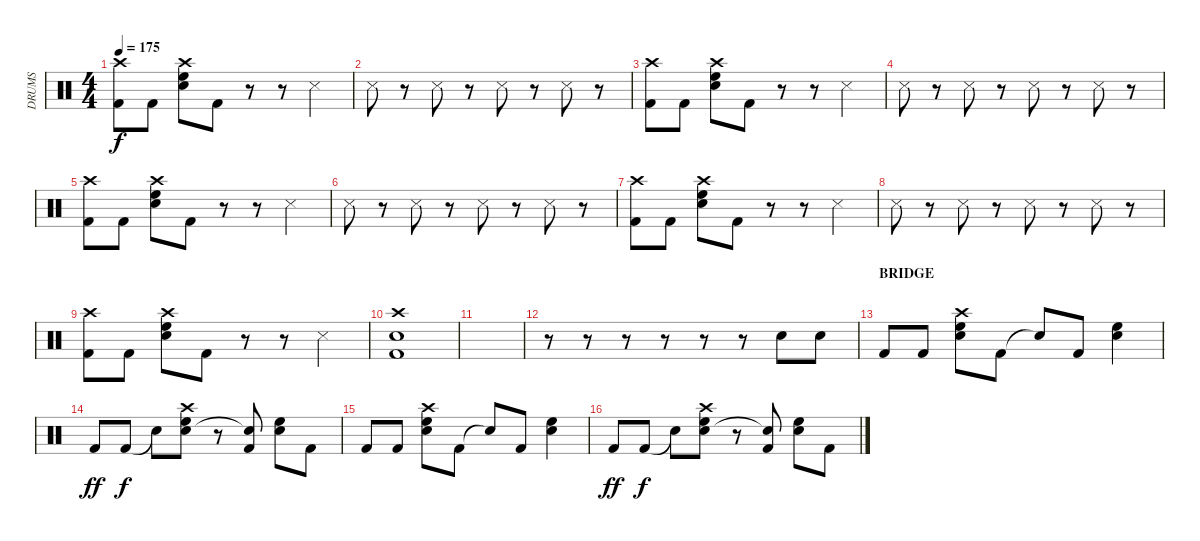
\track ("DRUMS" "DRUMS") {instrument percussion}
\staff {score}
\articulation defaults
\ts (4 4)
\tempo 175
\clef neutral
\ks c
("Kick (hit) 2" "Crash high (hit)").8{dy f} "Kick (hit) 2".8 ("High Floor Tom (hit)" "Electric Snare (hit)" "Crash high (hit)").8 "Kick (hit) 2".8 r.8 r.8 "Metronome (hit)".4 |
"Metronome (hit)".8 r.8 "Metronome (hit)".8 r.8 "Metronome (hit)".8 r.8 "Metronome (hit)".8 r.8 |
("Kick (hit) 2" "Crash high (hit)").8 "Kick (hit) 2".8 ("High Floor Tom (hit)" "Electric Snare (hit)" "Crash high (hit)").8 "Kick (hit) 2".8 r.8 r.8 "Metronome (hit)".4 |
"Metronome (hit)".8 r.8 "Metronome (hit)".8 r.8 "Metronome (hit)".8 r.8 "Metronome (hit)".8 r.8 |
("Kick (hit) 2" "Crash high (hit)").8 "Kick (hit) 2".8 ("High Floor Tom (hit)" "Electric Snare (hit)" "Crash high (hit)").8 "Kick (hit) 2".8 r.8 r.8 "Metronome (hit)".4 |
"Metronome (hit)".8 r.8 "Metronome (hit)".8 r.8 "Metronome (hit)".8 r.8 "Metronome (hit)".8 r.8 |
("Kick (hit) 2" "Crash high (hit)").8 "Kick (hit) 2".8 ("High Floor Tom (hit)" "Electric Snare (hit)" "Crash high (hit)").8 "Kick (hit) 2".8 r.8 r.8 "Metronome (hit)".4 |
"Metronome (hit)".8 r.8 "Metronome (hit)".8 r.8 "Metronome (hit)".8 r.8 "Metronome (hit)".8 r.8 |
("Kick (hit) 2" "Crash high (hit)").8 "Kick (hit) 2".8 ("High Floor Tom (hit)" "Electric Snare (hit)" "Crash high (hit)").8 "Kick (hit) 2".8 r.8 r.8 "Metronome (hit)".4 |
("Crash high (hit)" "Kick (hit) 2" "Electric Snare (hit)").1 |
|
r.8 r.8 r.8 r.8 r.8 r.8 "Electric Snare (hit)".8 "Electric Snare (hit)".8 |
\section ("" "BRIDGE")
"Kick (hit) 2".8 "Kick (hit) 2".8 ("High Floor Tom (hit)" "Electric Snare (hit)" "Crash high (hit)").8 "Kick (hit) 2".8 "Snare (hit)"{t}.8 "Kick (hit) 2".8 ("High Floor Tom (hit)" "Electric Snare (hit)").4 |
"Kick (hit) 2".8{dy ff} "Kick (hit) 2".8{dy f} "Snare (hit)"{t}.8 ("High Floor Tom (hit)" "Electric Snare (hit)" "Crash high (hit)").8 r.8 ("Kick (hit) 2" "Snare (hit)"{t}).8 ("High Floor Tom (hit)" "Electric Snare (hit)").8 "Kick (hit) 2".8 |
"Kick (hit) 2".8 "Kick (hit) 2".8 ("High Floor Tom (hit)" "Electric Snare (hit)" "Crash high (hit)").8 "Kick (hit) 2".8 "Snare (hit)"{t}.8 "Kick (hit) 2".8 ("High Floor Tom (hit)" "Electric Snare (hit)").4 |
"Kick (hit) 2".8{dy ff} "Kick (hit) 2".8{dy f} "Snare (hit)"{t}.8 ("High Floor Tom (hit)" "Electric Snare (hit)" "Crash high (hit)").8 r.8 ("Kick (hit) 2" "Snare (hit)"{t}).8 ("High Floor Tom (hit)" "Electric Snare (hit)").8 "Kick (hit) 2".8
